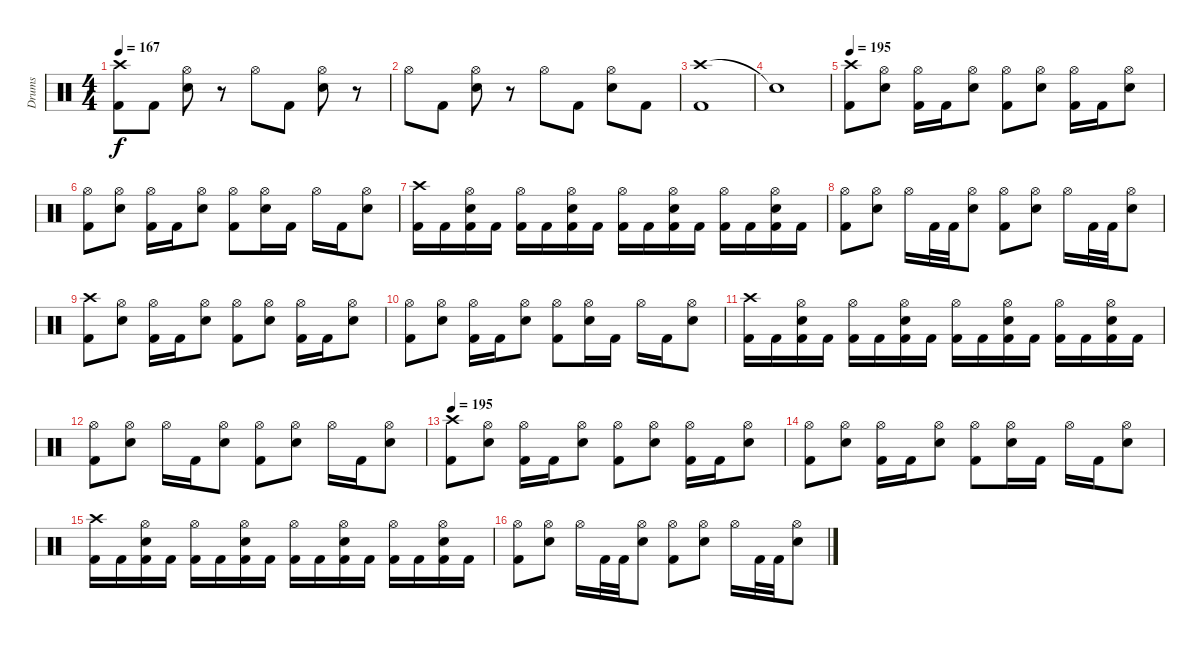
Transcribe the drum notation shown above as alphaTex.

\track ("Drums" "Drums") {instrument percussion}
\staff {score}
\articulation defaults
\ts (4 4)
\tempo 167
\clef neutral
\ks c
("Crash high (hit)" "Kick (hit) 2").8{dy f} "Kick (hit) 2".8 ("Hi-Hat (open)" "Snare (hit) 2").8 r.8 "Hi-Hat (open)".8 "Kick (hit) 2".8 ("Hi-Hat (open)" "Snare (hit) 2").8 r.8 |
"Hi-Hat (open)".8 "Kick (hit) 2".8 ("Hi-Hat (open)" "Snare (hit) 2").8 r.8 "Hi-Hat (open)".8 "Kick (hit) 2".8 ("Hi-Hat (open)" "Snare (hit) 2").8 "Kick (hit) 2".8 |
("Crash high (hit)" "Kick (hit) 2").1 |
"Snare (hit)"{t}.1 |
\tempo 195
("Crash high (hit)" "Kick (hit) 2").8 ("Hi-Hat (open)" "Snare (hit) 2").8 ("Hi-Hat (open)" "Kick (hit) 2").16 "Kick (hit) 2".16 ("Hi-Hat (open)" "Snare (hit) 2").8 ("Hi-Hat (open)" "Kick (hit) 2").8 ("Hi-Hat (open)" "Snare (hit) 2").8 ("Hi-Hat (open)" "Kick (hit) 2").16 "Kick (hit) 2".16 ("Hi-Hat (open)" "Snare (hit) 2").8 |
("Hi-Hat (open)" "Kick (hit) 2").8 ("Hi-Hat (open)" "Snare (hit) 2").8 ("Hi-Hat (open)" "Kick (hit) 2").16 "Kick (hit) 2".16 ("Hi-Hat (open)" "Snare (hit) 2").8 ("Hi-Hat (open)" "Kick (hit) 2").8 ("Hi-Hat (open)" "Snare (hit) 2").16 "Kick (hit) 2".16 "Hi-Hat (open)".16 "Kick (hit) 2".16 ("Hi-Hat (open)" "Snare (hit) 2").8 |
("Crash high (hit)" "Kick (hit) 2").16 "Kick (hit) 2".16 ("Hi-Hat (open)" "Snare (hit) 2" "Kick (hit) 2").16 "Kick (hit) 2".16 ("Hi-Hat (open)" "Kick (hit) 2").16 "Kick (hit) 2".16 ("Hi-Hat (open)" "Snare (hit) 2" "Kick (hit) 2").16 "Kick (hit) 2".16 ("Hi-Hat (open)" "Kick (hit) 2").16 "Kick (hit) 2".16 ("Hi-Hat (open)" "Snare (hit) 2" "Kick (hit) 2").16 "Kick (hit) 2".16 ("Hi-Hat (open)" "Kick (hit) 2").16 "Kick (hit) 2".16 ("Hi-Hat (open)" "Snare (hit) 2" "Kick (hit) 2").16 "Kick (hit) 2".16 |
("Hi-Hat (open)" "Kick (hit) 2").8 ("Hi-Hat (open)" "Snare (hit) 2").8 "Hi-Hat (open)".16 "Kick (hit) 2".32 "Kick (hit) 2".32 ("Hi-Hat (open)" "Snare (hit) 2").8 ("Hi-Hat (open)" "Kick (hit) 2").8 ("Hi-Hat (open)" "Snare (hit) 2").8 "Hi-Hat (open)".16 "Kick (hit) 2".32 "Kick (hit) 2".32 ("Hi-Hat (open)" "Snare (hit) 2").8 |
("Crash high (hit)" "Kick (hit) 2").8 ("Hi-Hat (open)" "Snare (hit) 2").8 ("Hi-Hat (open)" "Kick (hit) 2").16 "Kick (hit) 2".16 ("Hi-Hat (open)" "Snare (hit) 2").8 ("Hi-Hat (open)" "Kick (hit) 2").8 ("Hi-Hat (open)" "Snare (hit) 2").8 ("Hi-Hat (open)" "Kick (hit) 2").16 "Kick (hit) 2".16 ("Hi-Hat (open)" "Snare (hit) 2").8 |
("Hi-Hat (open)" "Kick (hit) 2").8 ("Hi-Hat (open)" "Snare (hit) 2").8 ("Hi-Hat (open)" "Kick (hit) 2").16 "Kick (hit) 2".16 ("Hi-Hat (open)" "Snare (hit) 2").8 ("Hi-Hat (open)" "Kick (hit) 2").8 ("Hi-Hat (open)" "Snare (hit) 2").16 "Kick (hit) 2".16 "Hi-Hat (open)".16 "Kick (hit) 2".16 ("Hi-Hat (open)" "Snare (hit) 2").8 |
("Crash high (hit)" "Kick (hit) 2").16 "Kick (hit) 2".16 ("Hi-Hat (open)" "Snare (hit) 2" "Kick (hit) 2").16 "Kick (hit) 2".16 ("Hi-Hat (open)" "Kick (hit) 2").16 "Kick (hit) 2".16 ("Hi-Hat (open)" "Snare (hit) 2" "Kick (hit) 2").16 "Kick (hit) 2".16 ("Hi-Hat (open)" "Kick (hit) 2").16 "Kick (hit) 2".16 ("Hi-Hat (open)" "Snare (hit) 2" "Kick (hit) 2").16 "Kick (hit) 2".16 ("Hi-Hat (open)" "Kick (hit) 2").16 "Kick (hit) 2".16 ("Hi-Hat (open)" "Snare (hit) 2" "Kick (hit) 2").16 "Kick (hit) 2".16 |
("Hi-Hat (open)" "Kick (hit) 2").8 ("Hi-Hat (open)" "Snare (hit) 2").8 "Hi-Hat (open)".16 "Kick (hit) 2".16 ("Hi-Hat (open)" "Snare (hit) 2").8 ("Hi-Hat (open)" "Kick (hit) 2").8 ("Hi-Hat (open)" "Snare (hit) 2").8 "Hi-Hat (open)".16 "Kick (hit) 2".16 ("Hi-Hat (open)" "Snare (hit) 2").8 |
\tempo 195
("Crash high (hit)" "Kick (hit) 2").8 ("Hi-Hat (open)" "Snare (hit) 2").8 ("Hi-Hat (open)" "Kick (hit) 2").16 "Kick (hit) 2".16 ("Hi-Hat (open)" "Snare (hit) 2").8 ("Hi-Hat (open)" "Kick (hit) 2").8 ("Hi-Hat (open)" "Snare (hit) 2").8 ("Hi-Hat (open)" "Kick (hit) 2").16 "Kick (hit) 2".16 ("Hi-Hat (open)" "Snare (hit) 2").8 |
("Hi-Hat (open)" "Kick (hit) 2").8 ("Hi-Hat (open)" "Snare (hit) 2").8 ("Hi-Hat (open)" "Kick (hit) 2").16 "Kick (hit) 2".16 ("Hi-Hat (open)" "Snare (hit) 2").8 ("Hi-Hat (open)" "Kick (hit) 2").8 ("Hi-Hat (open)" "Snare (hit) 2").16 "Kick (hit) 2".16 "Hi-Hat (open)".16 "Kick (hit) 2".16 ("Hi-Hat (open)" "Snare (hit) 2").8 |
("Crash high (hit)" "Kick (hit) 2").16 "Kick (hit) 2".16 ("Hi-Hat (open)" "Snare (hit) 2" "Kick (hit) 2").16 "Kick (hit) 2".16 ("Hi-Hat (open)" "Kick (hit) 2").16 "Kick (hit) 2".16 ("Hi-Hat (open)" "Snare (hit) 2" "Kick (hit) 2").16 "Kick (hit) 2".16 ("Hi-Hat (open)" "Kick (hit) 2").16 "Kick (hit) 2".16 ("Hi-Hat (open)" "Snare (hit) 2" "Kick (hit) 2").16 "Kick (hit) 2".16 ("Hi-Hat (open)" "Kick (hit) 2").16 "Kick (hit) 2".16 ("Hi-Hat (open)" "Snare (hit) 2" "Kick (hit) 2").16 "Kick (hit) 2".16 |
("Hi-Hat (open)" "Kick (hit) 2").8 ("Hi-Hat (open)" "Snare (hit) 2").8 "Hi-Hat (open)".16 "Kick (hit) 2".32 "Kick (hit) 2".32 ("Hi-Hat (open)" "Snare (hit) 2").8 ("Hi-Hat (open)" "Kick (hit) 2").8 ("Hi-Hat (open)" "Snare (hit) 2").8 "Hi-Hat (open)".16 "Kick (hit) 2".32 "Kick (hit) 2".32 ("Hi-Hat (open)" "Snare (hit) 2").8
